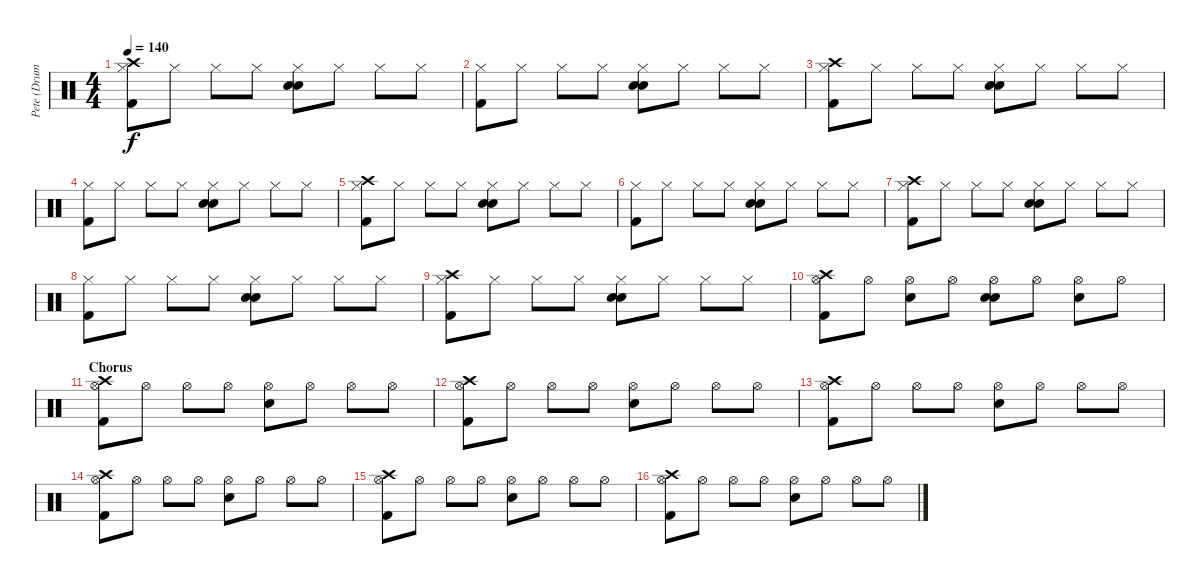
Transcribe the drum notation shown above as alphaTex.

\track ("Pete (Drums)" "Pete (Drum") {instrument percussion}
\staff {score}
\articulation defaults
\ts (4 4)
\tempo 140
\clef neutral
\ks c
("Hi-Hat (closed)" "Kick (hit) 2" "Crash high (hit)").8{dy f} "Hi-Hat (closed)".8 "Hi-Hat (closed)".8 "Hi-Hat (closed)".8 ("Hi-Hat (closed)" "Snare (hit) 2" "Snare (hit) 2").8 "Hi-Hat (closed)".8 "Hi-Hat (closed)".8 "Hi-Hat (closed)".8 |
("Hi-Hat (closed)" "Kick (hit) 2").8 "Hi-Hat (closed)".8 "Hi-Hat (closed)".8 "Hi-Hat (closed)".8 ("Hi-Hat (closed)" "Snare (hit) 2" "Snare (hit) 2").8 "Hi-Hat (closed)".8 "Hi-Hat (closed)".8 "Hi-Hat (closed)".8 |
("Hi-Hat (closed)" "Kick (hit) 2" "Crash high (hit)").8 "Hi-Hat (closed)".8 "Hi-Hat (closed)".8 "Hi-Hat (closed)".8 ("Hi-Hat (closed)" "Snare (hit) 2" "Snare (hit) 2").8 "Hi-Hat (closed)".8 "Hi-Hat (closed)".8 "Hi-Hat (closed)".8 |
("Hi-Hat (closed)" "Kick (hit) 2").8 "Hi-Hat (closed)".8 "Hi-Hat (closed)".8 "Hi-Hat (closed)".8 ("Hi-Hat (closed)" "Snare (hit) 2" "Snare (hit) 2").8 "Hi-Hat (closed)".8 "Hi-Hat (closed)".8 "Hi-Hat (closed)".8 |
("Hi-Hat (closed)" "Kick (hit) 2" "Crash high (hit)").8 "Hi-Hat (closed)".8 "Hi-Hat (closed)".8 "Hi-Hat (closed)".8 ("Hi-Hat (closed)" "Snare (hit) 2" "Snare (hit) 2").8 "Hi-Hat (closed)".8 "Hi-Hat (closed)".8 "Hi-Hat (closed)".8 |
("Hi-Hat (closed)" "Kick (hit) 2").8 "Hi-Hat (closed)".8 "Hi-Hat (closed)".8 "Hi-Hat (closed)".8 ("Hi-Hat (closed)" "Snare (hit) 2" "Snare (hit) 2").8 "Hi-Hat (closed)".8 "Hi-Hat (closed)".8 "Hi-Hat (closed)".8 |
("Hi-Hat (closed)" "Kick (hit) 2" "Crash high (hit)").8 "Hi-Hat (closed)".8 "Hi-Hat (closed)".8 "Hi-Hat (closed)".8 ("Hi-Hat (closed)" "Snare (hit) 2" "Snare (hit) 2").8 "Hi-Hat (closed)".8 "Hi-Hat (closed)".8 "Hi-Hat (closed)".8 |
("Hi-Hat (closed)" "Kick (hit) 2").8 "Hi-Hat (closed)".8 "Hi-Hat (closed)".8 "Hi-Hat (closed)".8 ("Hi-Hat (closed)" "Snare (hit) 2" "Snare (hit) 2").8 "Hi-Hat (closed)".8 "Hi-Hat (closed)".8 "Hi-Hat (closed)".8 |
("Hi-Hat (closed)" "Kick (hit) 2" "Crash high (hit)").8 "Hi-Hat (closed)".8 "Hi-Hat (closed)".8 "Hi-Hat (closed)".8 ("Hi-Hat (closed)" "Snare (hit) 2" "Snare (hit) 2").8 "Hi-Hat (closed)".8 "Hi-Hat (closed)".8 "Hi-Hat (closed)".8 |
("Hi-Hat (open)" "Kick (hit) 2" "Crash high (hit)").8 "Hi-Hat (open)".8 ("Hi-Hat (open)" "Snare (hit) 2").8 "Hi-Hat (open)".8 ("Hi-Hat (open)" "Snare (hit) 2" "Snare (hit) 2").8 "Hi-Hat (open)".8 ("Hi-Hat (open)" "Snare (hit) 2").8 "Hi-Hat (open)".8 |
\section ("" "Chorus")
("Hi-Hat (open)" "Kick (hit) 2" "Crash high (hit)").8 "Hi-Hat (open)".8 "Hi-Hat (open)".8 "Hi-Hat (open)".8 ("Hi-Hat (open)" "Snare (hit) 2").8 "Hi-Hat (open)".8 "Hi-Hat (open)".8 "Hi-Hat (open)".8 |
("Hi-Hat (open)" "Kick (hit) 2" "Crash high (hit)").8 "Hi-Hat (open)".8 "Hi-Hat (open)".8 "Hi-Hat (open)".8 ("Hi-Hat (open)" "Snare (hit) 2").8 "Hi-Hat (open)".8 "Hi-Hat (open)".8 "Hi-Hat (open)".8 |
("Hi-Hat (open)" "Kick (hit) 2" "Crash high (hit)").8 "Hi-Hat (open)".8 "Hi-Hat (open)".8 "Hi-Hat (open)".8 ("Hi-Hat (open)" "Snare (hit) 2").8 "Hi-Hat (open)".8 "Hi-Hat (open)".8 "Hi-Hat (open)".8 |
("Hi-Hat (open)" "Kick (hit) 2" "Crash high (hit)").8 "Hi-Hat (open)".8 "Hi-Hat (open)".8 "Hi-Hat (open)".8 ("Hi-Hat (open)" "Snare (hit) 2").8 "Hi-Hat (open)".8 "Hi-Hat (open)".8 "Hi-Hat (open)".8 |
("Hi-Hat (open)" "Kick (hit) 2" "Crash high (hit)").8 "Hi-Hat (open)".8 "Hi-Hat (open)".8 "Hi-Hat (open)".8 ("Hi-Hat (open)" "Snare (hit) 2").8 "Hi-Hat (open)".8 "Hi-Hat (open)".8 "Hi-Hat (open)".8 |
("Hi-Hat (open)" "Kick (hit) 2" "Crash high (hit)").8 "Hi-Hat (open)".8 "Hi-Hat (open)".8 "Hi-Hat (open)".8 ("Hi-Hat (open)" "Snare (hit) 2").8 "Hi-Hat (open)".8 "Hi-Hat (open)".8 "Hi-Hat (open)".8
